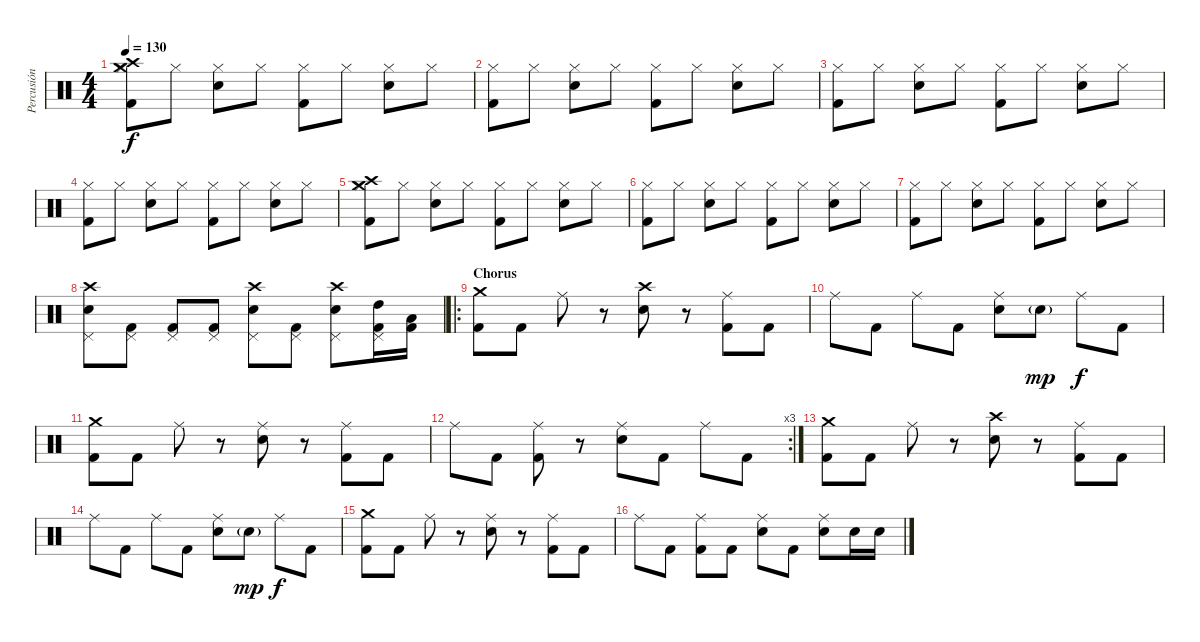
\track ("Percusión" "Percusión") {instrument percussion}
\staff {score}
\articulation defaults
\ts (4 4)
\tempo 130
\clef neutral
\ks c
("Crash medium (hit)" "Crash high (hit)" "Hi-Hat (closed)" "Kick (hit) 2").8{dy f} "Hi-Hat (closed)".8 ("Hi-Hat (closed)" "Snare (hit) 2").8 "Hi-Hat (closed)".8 ("Hi-Hat (closed)" "Kick (hit) 2").8 "Hi-Hat (closed)".8 ("Hi-Hat (closed)" "Snare (hit) 2").8 "Hi-Hat (closed)".8 |
("Hi-Hat (closed)" "Kick (hit) 2").8 "Hi-Hat (closed)".8 ("Hi-Hat (closed)" "Snare (hit) 2").8 "Hi-Hat (closed)".8 ("Hi-Hat (closed)" "Kick (hit) 2").8 "Hi-Hat (closed)".8 ("Hi-Hat (closed)" "Snare (hit) 2").8 "Hi-Hat (closed)".8 |
("Hi-Hat (closed)" "Kick (hit) 2").8 "Hi-Hat (closed)".8 ("Hi-Hat (closed)" "Snare (hit) 2").8 "Hi-Hat (closed)".8 ("Hi-Hat (closed)" "Kick (hit) 2").8 "Hi-Hat (closed)".8 ("Hi-Hat (closed)" "Snare (hit) 2").8 "Hi-Hat (closed)".8 |
("Hi-Hat (closed)" "Kick (hit) 2").8 "Hi-Hat (closed)".8 ("Hi-Hat (closed)" "Snare (hit) 2").8 "Hi-Hat (closed)".8 ("Hi-Hat (closed)" "Kick (hit) 2").8 "Hi-Hat (closed)".8 ("Hi-Hat (closed)" "Snare (hit) 2").8 "Hi-Hat (closed)".8 |
("Crash medium (hit)" "Crash high (hit)" "Hi-Hat (closed)" "Kick (hit) 2").8 "Hi-Hat (closed)".8 ("Hi-Hat (closed)" "Snare (hit) 2").8 "Hi-Hat (closed)".8 ("Hi-Hat (closed)" "Kick (hit) 2").8 "Hi-Hat (closed)".8 ("Hi-Hat (closed)" "Snare (hit) 2").8 "Hi-Hat (closed)".8 |
("Hi-Hat (closed)" "Kick (hit) 2").8 "Hi-Hat (closed)".8 ("Hi-Hat (closed)" "Snare (hit) 2").8 "Hi-Hat (closed)".8 ("Hi-Hat (closed)" "Kick (hit) 2").8 "Hi-Hat (closed)".8 ("Hi-Hat (closed)" "Snare (hit) 2").8 "Hi-Hat (closed)".8 |
("Hi-Hat (closed)" "Kick (hit) 2").8 "Hi-Hat (closed)".8 ("Hi-Hat (closed)" "Snare (hit) 2").8 "Hi-Hat (closed)".8 ("Hi-Hat (closed)" "Kick (hit) 2").8 "Hi-Hat (closed)".8 ("Hi-Hat (closed)" "Snare (hit) 2").8 "Hi-Hat (closed)".8 |
("Crash high (hit)" "Pedal Hi-Hat (hit)" "Snare (hit) 2").8 ("Pedal Hi-Hat (hit)" "Kick (hit) 2").8 ("Pedal Hi-Hat (hit)" "Kick (hit) 2").8 ("Pedal Hi-Hat (hit)" "Kick (hit) 2").8 ("Crash high (hit)" "Pedal Hi-Hat (hit)" "Snare (hit) 2").8 ("Pedal Hi-Hat (hit)" "Kick (hit) 2").8 ("Crash high (hit)" "Pedal Hi-Hat (hit)" "Snare (hit) 2").8 ("Pedal Hi-Hat (hit)" "High Tom (hit)" "Kick (hit) 2").16 ("Low Tom (hit)" "Kick (hit) 2").16 |
\ro
\section ("" "Chorus")
("Crash medium (hit)" "Kick (hit) 2").8 "Kick (hit) 2".8 "Ride (middle)".8 r.8 ("Crash high (hit)" "Snare (hit) 2").8 r.8 ("Ride (middle)" "Kick (hit) 2").8 "Kick (hit) 2".8 |
"Ride (middle)".8 "Kick (hit) 2".8 "Ride (middle)".8 "Kick (hit) 2".8 ("Ride (middle)" "Snare (hit) 2").8 "Snare (hit) 2"{g}.8{dy mp} "Ride (middle)".8{dy f} "Kick (hit) 2".8 |
("Crash medium (hit)" "Kick (hit) 2").8 "Kick (hit) 2".8 "Ride (middle)".8 r.8 ("Ride (middle)" "Snare (hit) 2").8 r.8 ("Ride (middle)" "Kick (hit) 2").8 "Kick (hit) 2".8 |
\rc 3 "Ride (middle)".8 "Kick (hit) 2".8
("Ride (middle)" "Kick (hit) 2").8 r.8 ("Ride (middle)" "Snare (hit) 2").8 "Kick (hit) 2".8 "Ride (middle)".8 "Kick (hit) 2".8 |
("Crash medium (hit)" "Kick (hit) 2").8 "Kick (hit) 2".8 "Ride (middle)".8 r.8 ("Crash high (hit)" "Snare (hit) 2").8 r.8 ("Ride (middle)" "Kick (hit) 2").8 "Kick (hit) 2".8 |
"Ride (middle)".8 "Kick (hit) 2".8 "Ride (middle)".8 "Kick (hit) 2".8 ("Ride (middle)" "Snare (hit) 2").8 "Snare (hit) 2"{g}.8{dy mp} "Ride (middle)".8{dy f} "Kick (hit) 2".8 |
("Crash medium (hit)" "Kick (hit) 2").8 "Kick (hit) 2".8 "Ride (middle)".8 r.8 ("Ride (middle)" "Snare (hit) 2").8 r.8 ("Ride (middle)" "Kick (hit) 2").8 "Kick (hit) 2".8 |
"Ride (middle)".8 "Kick (hit) 2".8 ("Ride (middle)" "Kick (hit) 2").8 "Kick (hit) 2".8 ("Ride (middle)" "Snare (hit) 2").8 "Kick (hit) 2".8 ("Ride (middle)" "Snare (hit) 2").8 "Snare (hit) 2".16 "Snare (hit) 2".16
